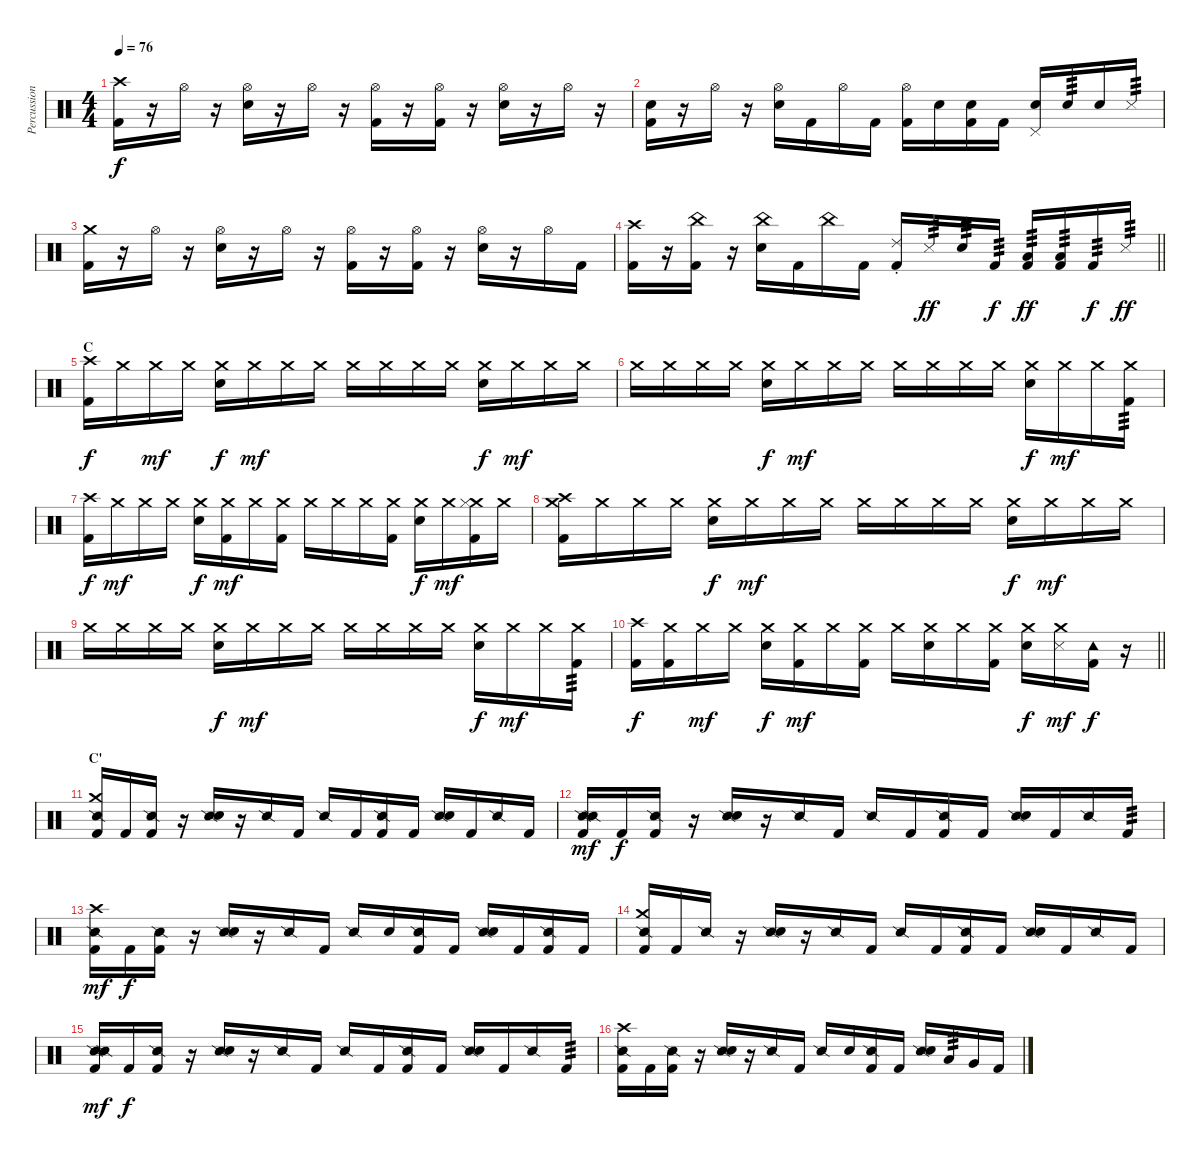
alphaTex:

\track ("Percussion" "Percussion") {instrument percussion}
\staff {score}
\articulation defaults
\ts (4 4)
\tempo 76
\clef neutral
\ks c
("Crash high (hit)" "Kick (hit) 2").16{dy f} r.16 "Hi-Hat (open)".16 r.16 ("Hi-Hat (open)" "Snare (hit) 2").16 r.16 "Hi-Hat (open)".16 r.16 ("Hi-Hat (open)" "Kick (hit) 2").16 r.16 ("Hi-Hat (open)" "Kick (hit) 2").16 r.16 ("Hi-Hat (open)" "Snare (hit) 2").16 r.16 "Hi-Hat (open)".16 r.16 |
("Snare (hit)" "Kick (hit) 2").16 r.16 "Hi-Hat (open)".16 r.16 ("Hi-Hat (open)" "Snare (hit) 2").16 "Kick (hit) 2".16 "Hi-Hat (open)".16 "Kick (hit) 2".16 ("Hi-Hat (open)" "Kick (hit) 2").16 "Snare (hit) 2".16 ("Snare (hit)" "Kick (hit) 2").16 "Kick (hit) 2".16 ("Pedal Hi-Hat (hit)" "Snare (hit) 2").16 "Snare (hit)".16{tp 3} "Snare (hit) 2".16 "Metronome (hit)".16{tp 3} |
("Crash medium (hit)" "Kick (hit) 2").16 r.16 "Hi-Hat (open)".16 r.16 ("Hi-Hat (open)" "Snare (hit) 2").16 r.16 "Hi-Hat (open)".16 r.16 ("Hi-Hat (open)" "Kick (hit) 2").16 r.16 ("Hi-Hat (open)" "Kick (hit) 2").16 r.16 ("Hi-Hat (open)" "Snare (hit) 2").16 r.16 "Hi-Hat (open)".16 "Kick (hit) 2".16 |
\barLineRight lightlight
("Crash high (hit)" "Kick (hit) 2").16 r.16 ("China (hit)" "Kick (hit) 2").16 r.16 ("China (hit)" "Snare (hit) 2").16 "Kick (hit) 2".16 "China (hit)".16 "Kick (hit) 2".16 ("Ride (choke) 2" "Kick (hit) 2").16 "Metronome (hit)".16{tp 3 dy ff} "Snare (hit) 2".16{tp 3} "Kick (hit) 2".16{tp 3 dy f} ("Low Tom (hit)" "Kick (hit) 2").16{tp 3 dy ff} ("Low Tom (hit)" "Kick (hit) 2").16{tp 3} "Kick (hit) 2".16{tp 3 dy f} "Metronome (hit)".16{tp 3 dy ff} |
\section ("" "C")
("Crash high (hit)" "Kick (hit) 2").16{dy f} "Crash medium (hit)".16 "Crash medium (hit)".16{dy mf} "Crash medium (hit)".16 ("Crash medium (hit)" "Snare (hit) 2").16{dy f} "Crash medium (hit)".16{dy mf} "Crash medium (hit)".16 "Crash medium (hit)".16 "Crash medium (hit)".16 "Crash medium (hit)".16 "Crash medium (hit)".16 "Crash medium (hit)".16 ("Crash medium (hit)" "Snare (hit) 2").16{dy f} "Crash medium (hit)".16{dy mf} "Crash medium (hit)".16 "Crash medium (hit)".16 |
"Crash medium (hit)".16 "Crash medium (hit)".16 "Crash medium (hit)".16 "Crash medium (hit)".16 ("Crash medium (hit)" "Snare (hit) 2").16{dy f} "Crash medium (hit)".16{dy mf} "Crash medium (hit)".16 "Crash medium (hit)".16 "Crash medium (hit)".16 "Crash medium (hit)".16 "Crash medium (hit)".16 "Crash medium (hit)".16 ("Crash medium (hit)" "Snare (hit) 2").16{dy f} "Crash medium (hit)".16{dy mf} "Crash medium (hit)".16 ("Crash medium (hit)" "Kick (hit) 2").16{tp 3} |
("Crash high (hit)" "Kick (hit) 2").16{dy f} "Crash medium (hit)".16{dy mf} "Crash medium (hit)".16 "Crash medium (hit)".16 ("Crash medium (hit)" "Snare (hit) 2").16{dy f} ("Crash medium (hit)" "Kick (hit) 2").16{dy mf} "Crash medium (hit)".16 ("Crash medium (hit)" "Kick (hit) 2").16 "Crash medium (hit)".16 "Crash medium (hit)".16 "Crash medium (hit)".16 ("Crash medium (hit)" "Kick (hit) 2").16 ("Crash medium (hit)" "Snare (hit) 2").16{dy f} "Crash medium (hit)".16{dy mf} ("Crash medium (hit)" "Hi-Hat (closed)" "Kick (hit) 2").16 "Crash medium (hit)".16 |
("Crash medium (hit)" "Crash high (hit)" "Kick (hit) 2").16 "Crash medium (hit)".16 "Crash medium (hit)".16 "Crash medium (hit)".16 ("Crash medium (hit)" "Snare (hit) 2").16{dy f} "Crash medium (hit)".16{dy mf} "Crash medium (hit)".16 "Crash medium (hit)".16 "Crash medium (hit)".16 "Crash medium (hit)".16 "Crash medium (hit)".16 "Crash medium (hit)".16 ("Crash medium (hit)" "Snare (hit) 2").16{dy f} "Crash medium (hit)".16{dy mf} "Crash medium (hit)".16 "Crash medium (hit)".16 |
"Crash medium (hit)".16 "Crash medium (hit)".16 "Crash medium (hit)".16 "Crash medium (hit)".16 ("Crash medium (hit)" "Snare (hit) 2").16{dy f} "Crash medium (hit)".16{dy mf} "Crash medium (hit)".16 "Crash medium (hit)".16 "Crash medium (hit)".16 "Crash medium (hit)".16 "Crash medium (hit)".16 "Crash medium (hit)".16 ("Crash medium (hit)" "Snare (hit) 2").16{dy f} "Crash medium (hit)".16{dy mf} "Crash medium (hit)".16 ("Crash medium (hit)" "Kick (hit) 2").16{tp 3} |
\barLineRight lightlight
("Crash high (hit)" "Kick (hit) 2").16{dy f} ("Crash medium (hit)" "Kick (hit) 2").16 "Crash medium (hit)".16{dy mf} "Crash medium (hit)".16 ("Crash medium (hit)" "Snare (hit) 2").16{dy f} ("Crash medium (hit)" "Kick (hit) 2").16{dy mf} "Crash medium (hit)".16 ("Crash medium (hit)" "Kick (hit) 2").16 "Crash medium (hit)".16 ("Crash medium (hit)" "Snare (hit) 2").16 "Crash medium (hit)".16 ("Crash medium (hit)" "Kick (hit) 2").16 ("Crash medium (hit)" "Snare (hit) 2").16{dy f} ("Crash medium (hit)" "Metronome (hit)").16{dy mf} ("Tambourine (hit)" "Kick (hit) 2").16{dy f} r.16 |
\section ("" "C'")
("Snare (side stick) 2" "Crash medium (hit)" "Kick (hit) 2").16 "Kick (hit) 2".16 ("Snare (side stick) 2" "Kick (hit) 2").16 r.16 ("Snare (side stick) 2" "Snare (hit) 2").16 r.16 "Snare (side stick) 2".16 "Kick (hit) 2".16 "Snare (side stick) 2".16 "Kick (hit) 2".16 ("Snare (side stick) 2" "Kick (hit) 2").16 "Kick (hit) 2".16 ("Snare (side stick) 2" "Snare (hit) 2").16 "Kick (hit) 2".16 "Snare (side stick) 2".16 "Kick (hit) 2".16 |
("Snare (side stick) 2" "Snare (side stick) 2" "Kick (hit) 2").16{dy mf} "Kick (hit) 2".16{dy f} ("Snare (side stick) 2" "Kick (hit) 2").16 r.16 ("Snare (side stick) 2" "Snare (hit) 2").16 r.16 "Snare (side stick) 2".16 "Kick (hit) 2".16 "Snare (side stick) 2".16 "Kick (hit) 2".16 ("Snare (side stick) 2" "Kick (hit) 2").16 "Kick (hit) 2".16 ("Snare (side stick) 2" "Snare (hit) 2").16 "Kick (hit) 2".16 "Snare (side stick) 2".16 "Kick (hit) 2".16{tp 3} |
("Snare (side stick) 2" "Crash high (hit)" "Kick (hit) 2").16{dy mf} "Kick (hit) 2".16{dy f} ("Snare (side stick) 2" "Kick (hit) 2").16 r.16 ("Snare (side stick) 2" "Snare (hit) 2").16 r.16 "Snare (side stick) 2".16 "Kick (hit) 2".16 "Snare (side stick) 2".16 "Snare (hit) 2".16 ("Snare (side stick) 2" "Kick (hit) 2").16 "Kick (hit) 2".16 ("Snare (side stick) 2" "Snare (hit) 2").16 "Kick (hit) 2".16 ("Snare (side stick) 2" "Kick (hit) 2").16 "Kick (hit) 2".16 |
("Snare (side stick) 2" "Crash medium (hit)" "Kick (hit) 2").16 "Kick (hit) 2".16 "Snare (side stick) 2".16 r.16 ("Snare (side stick) 2" "Snare (hit) 2").16 r.16 "Snare (side stick) 2".16 "Kick (hit) 2".16 "Snare (side stick) 2".16 "Kick (hit) 2".16 ("Snare (side stick) 2" "Kick (hit) 2").16 "Kick (hit) 2".16 ("Snare (side stick) 2" "Snare (hit) 2").16 "Kick (hit) 2".16 "Snare (side stick) 2".16 "Kick (hit) 2".16 |
("Snare (side stick) 2" "Snare (side stick) 2" "Kick (hit) 2").16{dy mf} "Kick (hit) 2".16{dy f} ("Snare (side stick) 2" "Kick (hit) 2").16 r.16 ("Snare (side stick) 2" "Snare (hit) 2").16 r.16 "Snare (side stick) 2".16 "Kick (hit) 2".16 "Snare (side stick) 2".16 "Kick (hit) 2".16 ("Snare (side stick) 2" "Kick (hit) 2").16 "Kick (hit) 2".16 ("Snare (side stick) 2" "Snare (hit) 2").16 "Kick (hit) 2".16 "Snare (side stick) 2".16 "Kick (hit) 2".16{tp 3} |
("Snare (side stick) 2" "Crash high (hit)" "Kick (hit) 2").16 "Kick (hit) 2".16 ("Snare (side stick) 2" "Kick (hit) 2").16 r.16 ("Snare (side stick) 2" "Snare (hit) 2").16 r.16 "Snare (side stick) 2".16 "Kick (hit) 2".16 "Snare (side stick) 2".16 "Snare (hit) 2".16 ("Snare (side stick) 2" "Kick (hit) 2").16 "Kick (hit) 2".16 ("Snare (side stick) 2" "Snare (hit) 2").16 "Low Tom (hit)".16{tp 3} "Very Low Tom (hit)".16 "Kick (hit) 2".16
